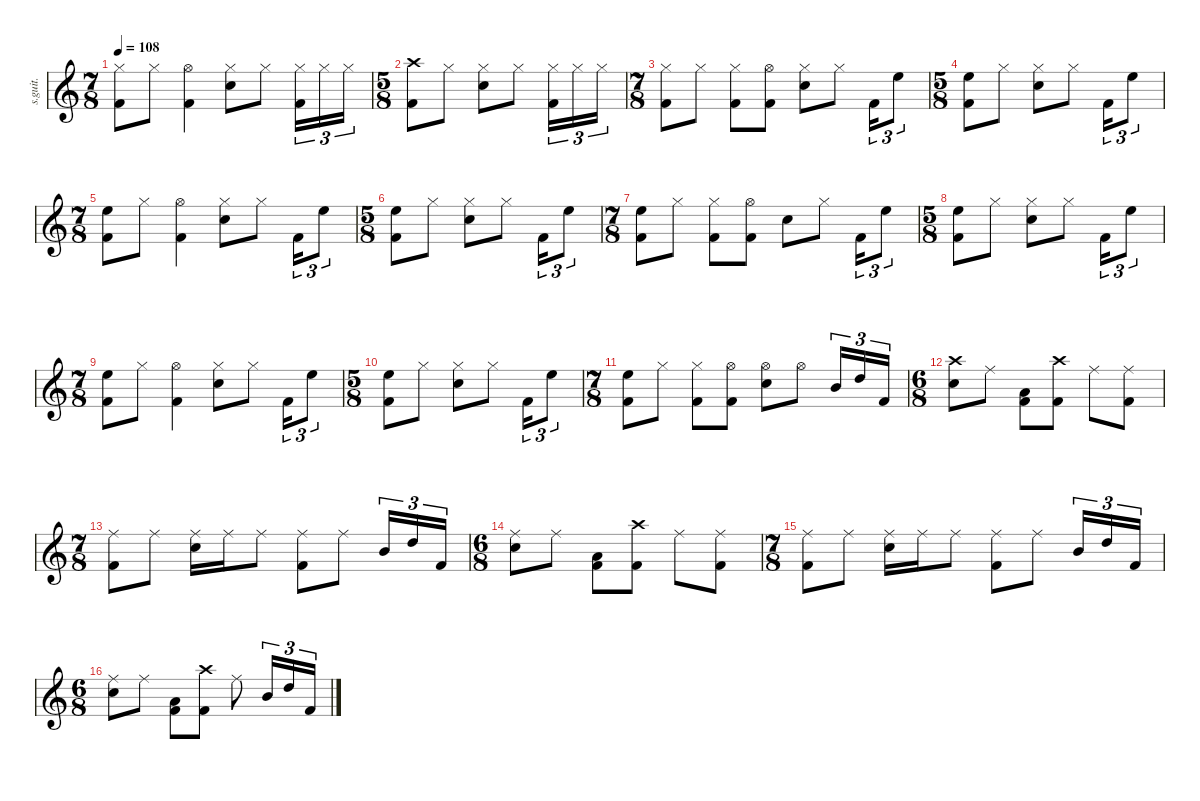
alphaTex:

\defaultSystemsLayout 4
\hideDynamics
\bracketExtendMode nobrackets
\track ("Danny Carey" "s.guit.") {instrument percussion}
\staff {score}
\articulation defaults
\ts (7 8)
\beaming (8 2 2 2 2)
\tempo 108
\clef g2
\ks c
("Hi-Hat (closed)" "Kick (hit) 2").8{lyrics (0 "") lyrics (1 "") lyrics (2 "") lyrics (3 "") lyrics (4 "") dy f} "Hi-Hat (closed)".8{lyrics (0 "") lyrics (1 "") lyrics (2 "") lyrics (3 "") lyrics (4 "")} ("Hi-Hat (open)" "Kick (hit) 2").4{lyrics (0 "") lyrics (1 "") lyrics (2 "") lyrics (3 "") lyrics (4 "")} ("Hi-Hat (closed)" "Snare (hit) 2").8{lyrics (0 "") lyrics (1 "") lyrics (2 "") lyrics (3 "") lyrics (4 "")} "Hi-Hat (closed)".8{lyrics (0 "") lyrics (1 "") lyrics (2 "") lyrics (3 "") lyrics (4 "")} ("Hi-Hat (closed)" "Kick (hit) 2").16{tu (3 2) lyrics (0 "") lyrics (1 "") lyrics (2 "") lyrics (3 "") lyrics (4 "")} "Hi-Hat (closed)".16{tu (3 2) lyrics (0 "") lyrics (1 "") lyrics (2 "") lyrics (3 "") lyrics (4 "")} "Hi-Hat (closed)".16{tu (3 2) lyrics (0 "") lyrics (1 "") lyrics (2 "") lyrics (3 "") lyrics (4 "")} |
\ts (5 8)
\beaming (8 2 2 2 2)
("Crash high (hit)" "Kick (hit) 2").8{lyrics (0 "") lyrics (1 "") lyrics (2 "") lyrics (3 "") lyrics (4 "")} "Hi-Hat (closed)".8{lyrics (0 "") lyrics (1 "") lyrics (2 "") lyrics (3 "") lyrics (4 "")} ("Hi-Hat (closed)" "Snare (hit) 2").8{lyrics (0 "") lyrics (1 "") lyrics (2 "") lyrics (3 "") lyrics (4 "")} "Hi-Hat (closed)".8{lyrics (0 "") lyrics (1 "") lyrics (2 "") lyrics (3 "") lyrics (4 "")} ("Hi-Hat (closed)" "Kick (hit) 2").16{tu (3 2) lyrics (0 "") lyrics (1 "") lyrics (2 "") lyrics (3 "") lyrics (4 "")} "Hi-Hat (closed)".16{tu (3 2) lyrics (0 "") lyrics (1 "") lyrics (2 "") lyrics (3 "") lyrics (4 "")} "Hi-Hat (closed)".16{tu (3 2) lyrics (0 "") lyrics (1 "") lyrics (2 "") lyrics (3 "") lyrics (4 "")} |
\ts (7 8)
\beaming (8 2 2 2 2)
("Hi-Hat (closed)" "Kick (hit) 2").8{lyrics (0 "") lyrics (1 "") lyrics (2 "") lyrics (3 "") lyrics (4 "")} "Hi-Hat (closed)".8{lyrics (0 "") lyrics (1 "") lyrics (2 "") lyrics (3 "") lyrics (4 "")} ("Hi-Hat (closed)" "Kick (hit) 2").8{lyrics (0 "") lyrics (1 "") lyrics (2 "") lyrics (3 "") lyrics (4 "")} ("Hi-Hat (open)" "Kick (hit) 2").8{lyrics (0 "") lyrics (1 "") lyrics (2 "") lyrics (3 "") lyrics (4 "")} ("Hi-Hat (closed)" "Snare (hit) 2").8{lyrics (0 "") lyrics (1 "") lyrics (2 "") lyrics (3 "") lyrics (4 "")} "Hi-Hat (closed)".8{lyrics (0 "") lyrics (1 "") lyrics (2 "") lyrics (3 "") lyrics (4 "")} "Kick (hit) 2".16{tu (3 2) lyrics (0 "") lyrics (1 "") lyrics (2 "") lyrics (3 "") lyrics (4 "")} "High Floor Tom (hit)".8{tu (3 2) lyrics (0 "") lyrics (1 "") lyrics (2 "") lyrics (3 "") lyrics (4 "")} |
\ts (5 8)
\beaming (8 2 2 2 2)
("Kick (hit) 2" "High Floor Tom (hit)").8{lyrics (0 "") lyrics (1 "") lyrics (2 "") lyrics (3 "") lyrics (4 "")} "Hi-Hat (closed)".8{lyrics (0 "") lyrics (1 "") lyrics (2 "") lyrics (3 "") lyrics (4 "")} ("Hi-Hat (closed)" "Snare (hit) 2").8{lyrics (0 "") lyrics (1 "") lyrics (2 "") lyrics (3 "") lyrics (4 "")} "Hi-Hat (closed)".8{lyrics (0 "") lyrics (1 "") lyrics (2 "") lyrics (3 "") lyrics (4 "")} "Kick (hit) 2".16{tu (3 2) lyrics (0 "") lyrics (1 "") lyrics (2 "") lyrics (3 "") lyrics (4 "")} "High Floor Tom (hit)".8{tu (3 2) lyrics (0 "") lyrics (1 "") lyrics (2 "") lyrics (3 "") lyrics (4 "")} |
\ts (7 8)
\beaming (8 2 2 2 2)
("Kick (hit) 2" "High Floor Tom (hit)").8{lyrics (0 "") lyrics (1 "") lyrics (2 "") lyrics (3 "") lyrics (4 "")} "Hi-Hat (closed)".8{lyrics (0 "") lyrics (1 "") lyrics (2 "") lyrics (3 "") lyrics (4 "")} ("Hi-Hat (open)" "Kick (hit) 2").4{lyrics (0 "") lyrics (1 "") lyrics (2 "") lyrics (3 "") lyrics (4 "")} ("Hi-Hat (closed)" "Snare (hit) 2").8{lyrics (0 "") lyrics (1 "") lyrics (2 "") lyrics (3 "") lyrics (4 "")} "Hi-Hat (closed)".8{lyrics (0 "") lyrics (1 "") lyrics (2 "") lyrics (3 "") lyrics (4 "")} "Kick (hit) 2".16{tu (3 2) lyrics (0 "") lyrics (1 "") lyrics (2 "") lyrics (3 "") lyrics (4 "")} "High Floor Tom (hit)".8{tu (3 2) lyrics (0 "") lyrics (1 "") lyrics (2 "") lyrics (3 "") lyrics (4 "")} |
\ts (5 8)
\beaming (8 2 2 2 2)
("Kick (hit) 2" "High Floor Tom (hit)").8{lyrics (0 "") lyrics (1 "") lyrics (2 "") lyrics (3 "") lyrics (4 "")} "Hi-Hat (closed)".8{lyrics (0 "") lyrics (1 "") lyrics (2 "") lyrics (3 "") lyrics (4 "")} ("Hi-Hat (closed)" "Snare (hit) 2").8{lyrics (0 "") lyrics (1 "") lyrics (2 "") lyrics (3 "") lyrics (4 "")} "Hi-Hat (closed)".8{lyrics (0 "") lyrics (1 "") lyrics (2 "") lyrics (3 "") lyrics (4 "")} "Kick (hit) 2".16{tu (3 2) lyrics (0 "") lyrics (1 "") lyrics (2 "") lyrics (3 "") lyrics (4 "")} "High Floor Tom (hit)".8{tu (3 2) lyrics (0 "") lyrics (1 "") lyrics (2 "") lyrics (3 "") lyrics (4 "")} |
\ts (7 8)
\beaming (8 2 2 2 2)
("Kick (hit) 2" "High Floor Tom (hit)").8{lyrics (0 "") lyrics (1 "") lyrics (2 "") lyrics (3 "") lyrics (4 "")} "Hi-Hat (closed)".8{lyrics (0 "") lyrics (1 "") lyrics (2 "") lyrics (3 "") lyrics (4 "")} ("Hi-Hat (closed)" "Kick (hit) 2").8{lyrics (0 "") lyrics (1 "") lyrics (2 "") lyrics (3 "") lyrics (4 "")} ("Hi-Hat (open)" "Kick (hit) 2").8{lyrics (0 "") lyrics (1 "") lyrics (2 "") lyrics (3 "") lyrics (4 "")} "Snare (hit) 2".8{lyrics (0 "") lyrics (1 "") lyrics (2 "") lyrics (3 "") lyrics (4 "")} "Hi-Hat (closed)".8{lyrics (0 "") lyrics (1 "") lyrics (2 "") lyrics (3 "") lyrics (4 "")} "Kick (hit) 2".16{tu (3 2) lyrics (0 "") lyrics (1 "") lyrics (2 "") lyrics (3 "") lyrics (4 "")} "High Floor Tom (hit)".8{tu (3 2) lyrics (0 "") lyrics (1 "") lyrics (2 "") lyrics (3 "") lyrics (4 "")} |
\ts (5 8)
\beaming (8 2 2 2 2)
("Kick (hit) 2" "High Floor Tom (hit)").8{lyrics (0 "") lyrics (1 "") lyrics (2 "") lyrics (3 "") lyrics (4 "")} "Hi-Hat (closed)".8{lyrics (0 "") lyrics (1 "") lyrics (2 "") lyrics (3 "") lyrics (4 "")} ("Hi-Hat (closed)" "Snare (hit) 2").8{lyrics (0 "") lyrics (1 "") lyrics (2 "") lyrics (3 "") lyrics (4 "")} "Hi-Hat (closed)".8{lyrics (0 "") lyrics (1 "") lyrics (2 "") lyrics (3 "") lyrics (4 "")} "Kick (hit) 2".16{tu (3 2) lyrics (0 "") lyrics (1 "") lyrics (2 "") lyrics (3 "") lyrics (4 "")} "High Floor Tom (hit)".8{tu (3 2) lyrics (0 "") lyrics (1 "") lyrics (2 "") lyrics (3 "") lyrics (4 "")} |
\ts (7 8)
\beaming (8 2 2 2 2)
("Kick (hit) 2" "High Floor Tom (hit)").8{lyrics (0 "") lyrics (1 "") lyrics (2 "") lyrics (3 "") lyrics (4 "")} "Hi-Hat (closed)".8{lyrics (0 "") lyrics (1 "") lyrics (2 "") lyrics (3 "") lyrics (4 "")} ("Hi-Hat (open)" "Kick (hit) 2").4{lyrics (0 "") lyrics (1 "") lyrics (2 "") lyrics (3 "") lyrics (4 "")} ("Hi-Hat (closed)" "Snare (hit) 2").8{lyrics (0 "") lyrics (1 "") lyrics (2 "") lyrics (3 "") lyrics (4 "")} "Hi-Hat (closed)".8{lyrics (0 "") lyrics (1 "") lyrics (2 "") lyrics (3 "") lyrics (4 "")} "Kick (hit) 2".16{tu (3 2) lyrics (0 "") lyrics (1 "") lyrics (2 "") lyrics (3 "") lyrics (4 "")} "High Floor Tom (hit)".8{tu (3 2) lyrics (0 "") lyrics (1 "") lyrics (2 "") lyrics (3 "") lyrics (4 "")} |
\ts (5 8)
\beaming (8 2 2 2 2)
("Kick (hit) 2" "High Floor Tom (hit)").8{lyrics (0 "") lyrics (1 "") lyrics (2 "") lyrics (3 "") lyrics (4 "")} "Hi-Hat (closed)".8{lyrics (0 "") lyrics (1 "") lyrics (2 "") lyrics (3 "") lyrics (4 "")} ("Hi-Hat (closed)" "Snare (hit) 2").8{lyrics (0 "") lyrics (1 "") lyrics (2 "") lyrics (3 "") lyrics (4 "")} "Hi-Hat (closed)".8{lyrics (0 "") lyrics (1 "") lyrics (2 "") lyrics (3 "") lyrics (4 "")} "Kick (hit) 2".16{tu (3 2) lyrics (0 "") lyrics (1 "") lyrics (2 "") lyrics (3 "") lyrics (4 "")} "High Floor Tom (hit)".8{tu (3 2) lyrics (0 "") lyrics (1 "") lyrics (2 "") lyrics (3 "") lyrics (4 "")} |
\ts (7 8)
\beaming (8 2 2 2 2)
("Kick (hit) 2" "High Floor Tom (hit)").8{lyrics (0 "") lyrics (1 "") lyrics (2 "") lyrics (3 "") lyrics (4 "")} "Hi-Hat (closed)".8{lyrics (0 "") lyrics (1 "") lyrics (2 "") lyrics (3 "") lyrics (4 "")} ("Hi-Hat (closed)" "Kick (hit) 2").8{lyrics (0 "") lyrics (1 "") lyrics (2 "") lyrics (3 "") lyrics (4 "")} ("Hi-Hat (open)" "Kick (hit) 2").8{lyrics (0 "") lyrics (1 "") lyrics (2 "") lyrics (3 "") lyrics (4 "")} ("Snare (hit) 2" "Hi-Hat (open)").8{lyrics (0 "") lyrics (1 "") lyrics (2 "") lyrics (3 "") lyrics (4 "")} "Hi-Hat (open)".8{lyrics (0 "") lyrics (1 "") lyrics (2 "") lyrics (3 "") lyrics (4 "")} "Mid Tom (hit)".16{tu (3 2) lyrics (0 "") lyrics (1 "") lyrics (2 "") lyrics (3 "") lyrics (4 "")} "High Tom (hit)".16{tu (3 2) lyrics (0 "") lyrics (1 "") lyrics (2 "") lyrics (3 "") lyrics (4 "")} "Kick (hit) 2".16{tu (3 2) lyrics (0 "") lyrics (1 "") lyrics (2 "") lyrics (3 "") lyrics (4 "")} |
\ts (6 8)
\beaming (8 2 2 2 2)
("Crash high (hit)" "Snare (hit) 2").8{lyrics (0 "") lyrics (1 "") lyrics (2 "") lyrics (3 "") lyrics (4 "")} "Ride (middle)".8{lyrics (0 "") lyrics (1 "") lyrics (2 "") lyrics (3 "") lyrics (4 "")} ("Kick (hit) 2" "Low Floor Tom (hit)").8{lyrics (0 "") lyrics (1 "") lyrics (2 "") lyrics (3 "") lyrics (4 "")} ("Crash high (hit)" "Kick (hit) 2").8{lyrics (0 "") lyrics (1 "") lyrics (2 "") lyrics (3 "") lyrics (4 "")} "Ride (middle)".8{lyrics (0 "") lyrics (1 "") lyrics (2 "") lyrics (3 "") lyrics (4 "")} ("Ride (middle)" "Kick (hit) 2").8{lyrics (0 "") lyrics (1 "") lyrics (2 "") lyrics (3 "") lyrics (4 "")} |
\ts (7 8)
\beaming (8 2 2 2 2)
("Ride (middle)" "Kick (hit) 2").8{lyrics (0 "") lyrics (1 "") lyrics (2 "") lyrics (3 "") lyrics (4 "")} "Ride (middle)".8{lyrics (0 "") lyrics (1 "") lyrics (2 "") lyrics (3 "") lyrics (4 "")} ("Ride (middle)" "Snare (hit) 2").16{lyrics (0 "") lyrics (1 "") lyrics (2 "") lyrics (3 "") lyrics (4 "")} "Ride (middle)".16{lyrics (0 "") lyrics (1 "") lyrics (2 "") lyrics (3 "") lyrics (4 "")} "Ride (middle)".8{lyrics (0 "") lyrics (1 "") lyrics (2 "") lyrics (3 "") lyrics (4 "")} ("Ride (middle)" "Kick (hit) 2").8{lyrics (0 "") lyrics (1 "") lyrics (2 "") lyrics (3 "") lyrics (4 "")} "Ride (middle)".8{lyrics (0 "") lyrics (1 "") lyrics (2 "") lyrics (3 "") lyrics (4 "")} "Mid Tom (hit)".16{tu (3 2) lyrics (0 "") lyrics (1 "") lyrics (2 "") lyrics (3 "") lyrics (4 "")} "High Tom (hit)".16{tu (3 2) lyrics (0 "") lyrics (1 "") lyrics (2 "") lyrics (3 "") lyrics (4 "")} "Kick (hit) 2".16{tu (3 2) lyrics (0 "") lyrics (1 "") lyrics (2 "") lyrics (3 "") lyrics (4 "")} |
\ts (6 8)
\beaming (8 2 2 2 2)
("Ride (middle)" "Snare (hit) 2").8{lyrics (0 "") lyrics (1 "") lyrics (2 "") lyrics (3 "") lyrics (4 "")} "Ride (middle)".8{lyrics (0 "") lyrics (1 "") lyrics (2 "") lyrics (3 "") lyrics (4 "")} ("Kick (hit) 2" "Low Floor Tom (hit)").8{lyrics (0 "") lyrics (1 "") lyrics (2 "") lyrics (3 "") lyrics (4 "")} ("Crash high (hit)" "Kick (hit) 2").8{lyrics (0 "") lyrics (1 "") lyrics (2 "") lyrics (3 "") lyrics (4 "")} "Ride (middle)".8{lyrics (0 "") lyrics (1 "") lyrics (2 "") lyrics (3 "") lyrics (4 "")} ("Ride (middle)" "Kick (hit) 2").8{lyrics (0 "") lyrics (1 "") lyrics (2 "") lyrics (3 "") lyrics (4 "")} |
\ts (7 8)
\beaming (8 2 2 2 2)
("Ride (middle)" "Kick (hit) 2").8{lyrics (0 "") lyrics (1 "") lyrics (2 "") lyrics (3 "") lyrics (4 "")} "Ride (middle)".8{lyrics (0 "") lyrics (1 "") lyrics (2 "") lyrics (3 "") lyrics (4 "")} ("Ride (middle)" "Snare (hit) 2").16{lyrics (0 "") lyrics (1 "") lyrics (2 "") lyrics (3 "") lyrics (4 "")} "Ride (middle)".16{lyrics (0 "") lyrics (1 "") lyrics (2 "") lyrics (3 "") lyrics (4 "")} "Ride (middle)".8{lyrics (0 "") lyrics (1 "") lyrics (2 "") lyrics (3 "") lyrics (4 "")} ("Ride (middle)" "Kick (hit) 2").8{lyrics (0 "") lyrics (1 "") lyrics (2 "") lyrics (3 "") lyrics (4 "")} "Ride (middle)".8{lyrics (0 "") lyrics (1 "") lyrics (2 "") lyrics (3 "") lyrics (4 "")} "Mid Tom (hit)".16{tu (3 2) lyrics (0 "") lyrics (1 "") lyrics (2 "") lyrics (3 "") lyrics (4 "")} "High Tom (hit)".16{tu (3 2) lyrics (0 "") lyrics (1 "") lyrics (2 "") lyrics (3 "") lyrics (4 "")} "Kick (hit) 2".16{tu (3 2) lyrics (0 "") lyrics (1 "") lyrics (2 "") lyrics (3 "") lyrics (4 "")} |
\ts (6 8)
\beaming (8 2 2 2 2)
("Ride (middle)" "Snare (hit) 2").8{lyrics (0 "") lyrics (1 "") lyrics (2 "") lyrics (3 "") lyrics (4 "")} "Ride (middle)".8{lyrics (0 "") lyrics (1 "") lyrics (2 "") lyrics (3 "") lyrics (4 "")} ("Kick (hit) 2" "Low Floor Tom (hit)").8{lyrics (0 "") lyrics (1 "") lyrics (2 "") lyrics (3 "") lyrics (4 "")} ("Crash high (hit)" "Kick (hit) 2").8{lyrics (0 "") lyrics (1 "") lyrics (2 "") lyrics (3 "") lyrics (4 "")} "Ride (middle)".8{lyrics (0 "") lyrics (1 "") lyrics (2 "") lyrics (3 "") lyrics (4 "")} "Mid Tom (hit)".16{tu (3 2) lyrics (0 "") lyrics (1 "") lyrics (2 "") lyrics (3 "") lyrics (4 "")} "High Tom (hit)".16{tu (3 2) lyrics (0 "") lyrics (1 "") lyrics (2 "") lyrics (3 "") lyrics (4 "")} "Kick (hit) 2".16{tu (3 2) lyrics (0 "") lyrics (1 "") lyrics (2 "") lyrics (3 "") lyrics (4 "")}
